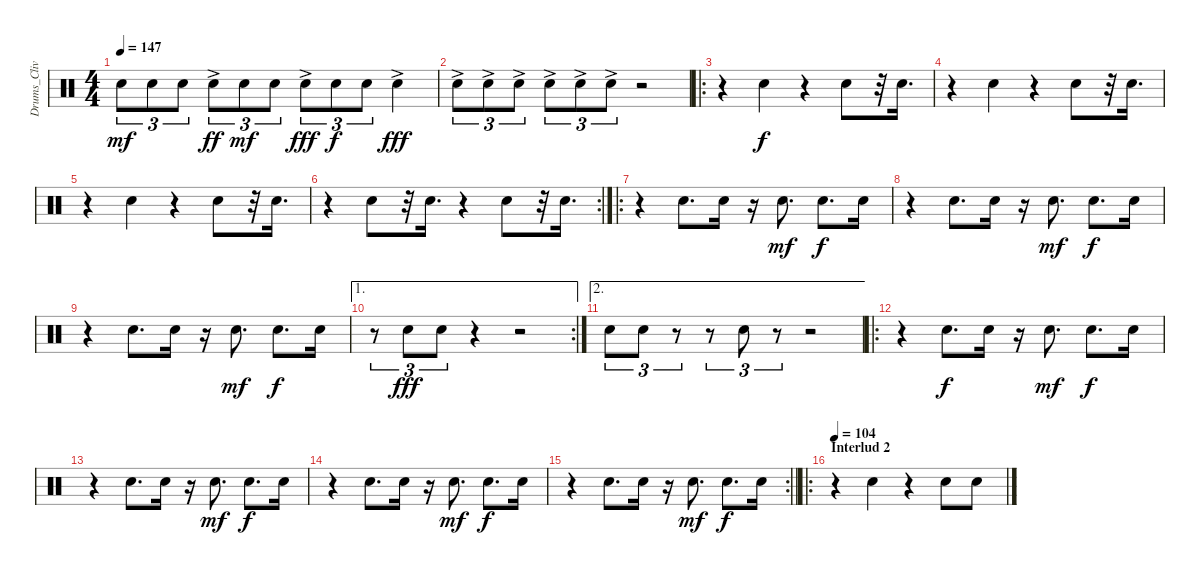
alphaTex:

\track ("Drums_CliveBurr" "Drums_Cliv") {instrument percussion}
\staff {score}
\articulation defaults
\ts (4 4)
\tempo 147
\clef neutral
\ks c "Snare (hit) 2".8{tu (3 2) dy mf} "Snare (hit) 2".8{tu (3 2)} "Snare (hit) 2".8{tu (3 2)} "Snare (hit) 2"{ac}.8{tu (3 2) dy ff} "Snare (hit) 2".8{tu (3 2) dy mf} "Snare (hit) 2".8{tu (3 2)} "Snare (hit) 2"{ac}.8{tu (3 2) dy fff} "Snare (hit) 2".8{tu (3 2) dy f} "Snare (hit) 2".8{tu (3 2)} "Snare (hit) 2"{ac}.4{dy fff}
|
"Snare (hit) 2"{ac}.8{tu (3 2)} "Snare (hit) 2"{ac}.8{tu (3 2)} "Snare (hit) 2"{ac}.8{tu (3 2)} "Snare (hit) 2"{ac}.8{tu (3 2)} "Snare (hit) 2"{ac}.8{tu (3 2)} "Snare (hit) 2"{ac}.8{tu (3 2)} r.2 |
\ro
r.4 "Snare (hit) 2".4{dy f} r.4 "Snare (hit) 2".8 r.32 "Snare (hit) 2".16{d} |
r.4 "Snare (hit) 2".4 r.4 "Snare (hit) 2".8 r.32 "Snare (hit) 2".16{d} |
r.4 "Snare (hit) 2".4 r.4 "Snare (hit) 2".8 r.32 "Snare (hit) 2".16{d} |
\rc 2
r.4 "Snare (hit) 2".8 r.32 "Snare (hit) 2".16{d} r.4 "Snare (hit) 2".8 r.32 "Snare (hit) 2".16{d} |
\ro
r.4 "Snare (hit) 2".8{d} "Snare (hit) 2".16 r.16 "Snare (hit) 2".8{d dy mf} "Snare (hit) 2".8{d dy f} "Snare (hit) 2".16 |
r.4 "Snare (hit) 2".8{d} "Snare (hit) 2".16 r.16 "Snare (hit) 2".8{d dy mf} "Snare (hit) 2".8{d dy f} "Snare (hit) 2".16 |
r.4 "Snare (hit) 2".8{d} "Snare (hit) 2".16 r.16 "Snare (hit) 2".8{d dy mf} "Snare (hit) 2".8{d dy f} "Snare (hit) 2".16 |
\ae 1
\rc 2
r.8{tu (3 2)} "Snare (hit) 2".8{tu (3 2) dy fff} "Snare (hit) 2".8{tu (3 2)} r.4 r.2 |
\ae 2 "Snare (hit) 2".8{tu (3 2)} "Snare (hit) 2".8{tu (3 2)}
r.8{tu (3 2)} r.8{tu (3 2)} "Snare (hit) 2".8{tu (3 2)} r.8{tu (3 2)} r.2 |
\ro
r.4 "Snare (hit) 2".8{d dy f} "Snare (hit) 2".16 r.16 "Snare (hit) 2".8{d dy mf} "Snare (hit) 2".8{d dy f} "Snare (hit) 2".16 |
r.4 "Snare (hit) 2".8{d} "Snare (hit) 2".16 r.16 "Snare (hit) 2".8{d dy mf} "Snare (hit) 2".8{d dy f} "Snare (hit) 2".16 |
r.4 "Snare (hit) 2".8{d} "Snare (hit) 2".16 r.16 "Snare (hit) 2".8{d dy mf} "Snare (hit) 2".8{d dy f} "Snare (hit) 2".16 |
\rc 2
\barLineRight lightlight
r.4 "Snare (hit) 2".8{d} "Snare (hit) 2".16 r.16 "Snare (hit) 2".8{d dy mf} "Snare (hit) 2".8{d dy f} "Snare (hit) 2".16 |
\ro
\section ("" "Interlud 2")
\tempo 104
r.4 "Snare (hit) 2".4 r.4 "Snare (hit) 2".8 "Snare (hit) 2".8
